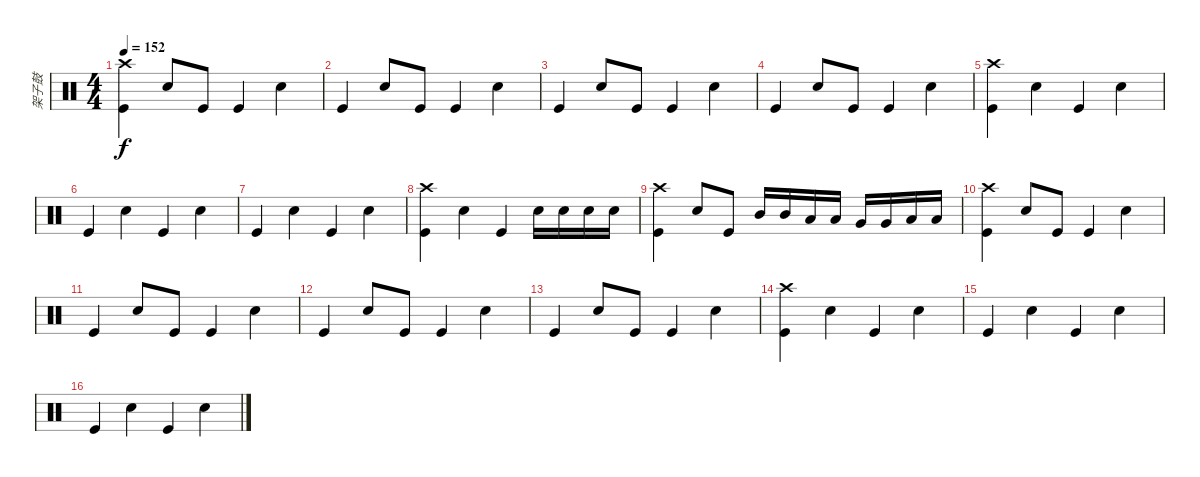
\track ("架子鼓" "架子鼓") {instrument percussion}
\staff {score}
\articulation defaults
\ts (4 4)
\tempo 152
\clef neutral
\ks c
("Crash high (hit)" "Kick (hit)").4{dy f} "Electric Snare (hit)".8 "Kick (hit)".8 "Kick (hit)".4 "Electric Snare (hit)".4 |
"Kick (hit)".4 "Electric Snare (hit)".8 "Kick (hit)".8 "Kick (hit)".4 "Electric Snare (hit)".4 |
"Kick (hit)".4 "Electric Snare (hit)".8 "Kick (hit)".8 "Kick (hit)".4 "Electric Snare (hit)".4 |
"Kick (hit)".4 "Electric Snare (hit)".8 "Kick (hit)".8 "Kick (hit)".4 "Electric Snare (hit)".4 |
("Crash high (hit)" "Kick (hit)").4 "Electric Snare (hit)".4 "Kick (hit)".4 "Electric Snare (hit)".4 |
"Kick (hit)".4 "Electric Snare (hit)".4 "Kick (hit)".4 "Electric Snare (hit)".4 |
"Kick (hit)".4 "Electric Snare (hit)".4 "Kick (hit)".4 "Electric Snare (hit)".4 |
("Crash high (hit)" "Kick (hit)").4 "Electric Snare (hit)".4 "Kick (hit)".4 "Electric Snare (hit)".16 "Electric Snare (hit)".16 "Electric Snare (hit)".16 "Electric Snare (hit)".16 |
("Crash high (hit)" "Kick (hit)").4 "Electric Snare (hit)".8 "Kick (hit)".8 "Mid Tom (hit)".16 "Mid Tom (hit)".16 "Low Tom (hit)".16 "Low Tom (hit)".16 "Very Low Tom (hit)".16 "Very Low Tom (hit)".16 "Low Floor Tom (hit)".16 "Low Floor Tom (hit)".16 |
("Crash high (hit)" "Kick (hit)").4 "Electric Snare (hit)".8 "Kick (hit)".8 "Kick (hit)".4 "Electric Snare (hit)".4 |
"Kick (hit)".4 "Electric Snare (hit)".8 "Kick (hit)".8 "Kick (hit)".4 "Electric Snare (hit)".4 |
"Kick (hit)".4 "Electric Snare (hit)".8 "Kick (hit)".8 "Kick (hit)".4 "Electric Snare (hit)".4 |
"Kick (hit)".4 "Electric Snare (hit)".8 "Kick (hit)".8 "Kick (hit)".4 "Electric Snare (hit)".4 |
("Crash high (hit)" "Kick (hit)").4 "Electric Snare (hit)".4 "Kick (hit)".4 "Electric Snare (hit)".4 |
"Kick (hit)".4 "Electric Snare (hit)".4 "Kick (hit)".4 "Electric Snare (hit)".4 |
"Kick (hit)".4 "Electric Snare (hit)".4 "Kick (hit)".4 "Electric Snare (hit)".4
